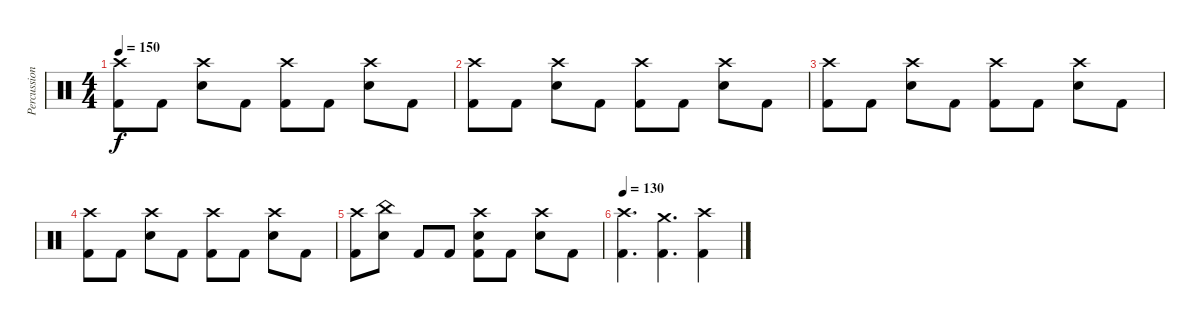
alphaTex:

\track ("Percussion" "Percussion") {instrument percussion}
\staff {score}
\articulation defaults
\ts (4 4)
\tempo 150
\clef neutral
\ks c
("Crash high (hit)" "Kick (hit) 2").8{dy f} "Kick (hit) 2".8 ("Crash high (hit)" "Electric Snare (hit)").8 "Kick (hit) 2".8 ("Crash high (hit)" "Kick (hit) 2").8 "Kick (hit) 2".8 ("Crash high (hit)" "Electric Snare (hit)").8 "Kick (hit) 2".8 |
("Crash high (hit)" "Kick (hit) 2").8 "Kick (hit) 2".8 ("Crash high (hit)" "Electric Snare (hit)").8 "Kick (hit) 2".8 ("Crash high (hit)" "Kick (hit) 2").8 "Kick (hit) 2".8 ("Crash high (hit)" "Electric Snare (hit)").8 "Kick (hit) 2".8 |
("Crash high (hit)" "Kick (hit) 2").8 "Kick (hit) 2".8 ("Crash high (hit)" "Electric Snare (hit)").8 "Kick (hit) 2".8 ("Crash high (hit)" "Kick (hit) 2").8 "Kick (hit) 2".8 ("Crash high (hit)" "Electric Snare (hit)").8 "Kick (hit) 2".8 |
("Crash high (hit)" "Kick (hit) 2").8 "Kick (hit) 2".8 ("Crash high (hit)" "Electric Snare (hit)").8 "Kick (hit) 2".8 ("Crash high (hit)" "Kick (hit) 2").8 "Kick (hit) 2".8 ("Crash high (hit)" "Electric Snare (hit)").8 "Kick (hit) 2".8 |
("Crash high (hit)" "Kick (hit) 2").8 ("China (hit)" "Electric Snare (hit)").8 "Kick (hit) 2".8 "Kick (hit) 2".8 ("Crash high (hit)" "Electric Snare (hit)" "Kick (hit) 2").8 "Kick (hit) 2".8 ("Crash high (hit)" "Electric Snare (hit)").8 "Kick (hit) 2".8 |
\tempo 130
("Crash high (hit)" "Kick (hit) 2").4{d} ("Crash medium (hit)" "Kick (hit) 2").4{d} ("Crash high (hit)" "Kick (hit) 2").4
